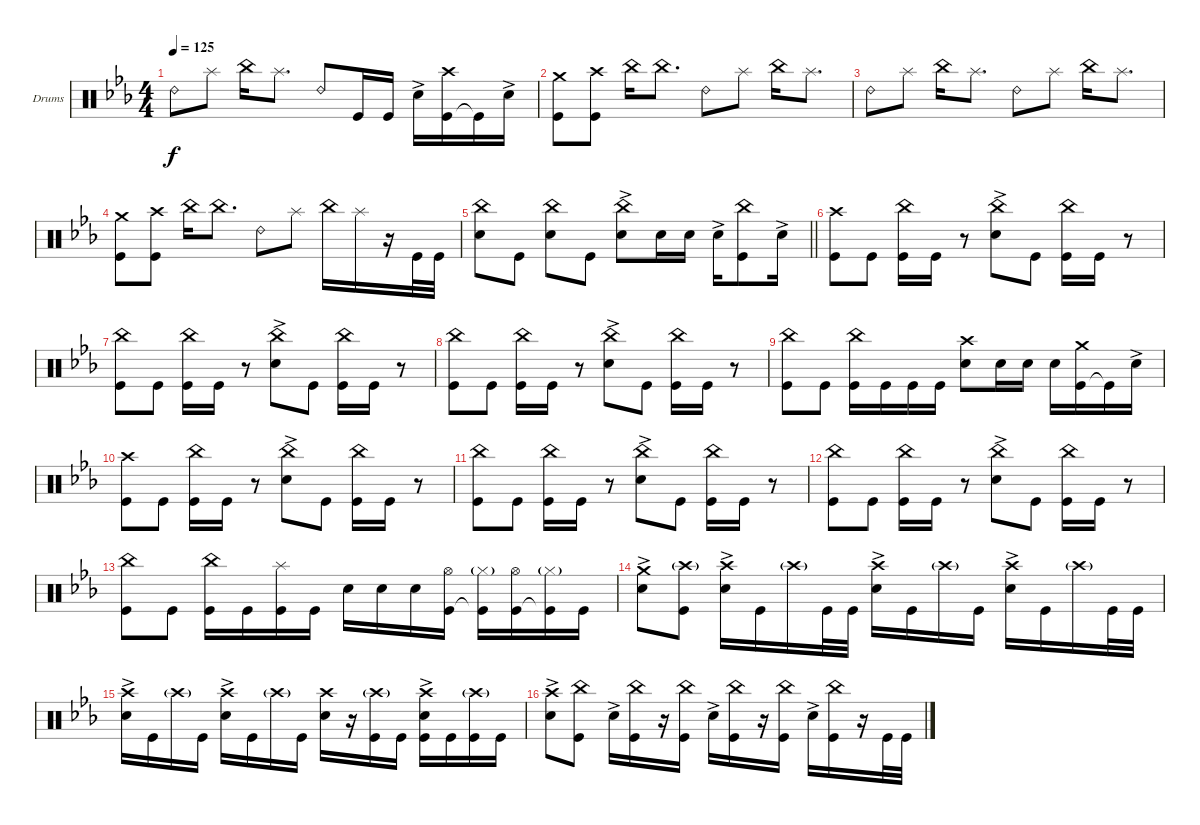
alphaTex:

\bracketExtendMode groupsimilarinstruments
\firstSystemTrackNameOrientation horizontal
\otherSystemsTrackNameOrientation horizontal
\track ("Drumkit" "Drums") {instrument percussion}
\staff {score}
\articulation defaults
\ts (4 4)
\tempo 125
\clef neutral
\ks cminor "Ride (bell) 2".8{dy f} "Splash (hit)".8 "China (hit)".16 "Splash (hit)".8{d} "Ride (bell) 2".8 "Kick (hit)".16 "Kick (hit)".16 "Snare (hit) 2"{ac}.16
("Kick (hit)" "Crash high (hit)").16 "Kick (hit)"{t}.16 "Snare (hit) 2"{ac}.16 |
("Crash medium (hit)" "Kick (hit)").8 ("Crash high (hit)" "Kick (hit)").8 "China (hit)".16 "China (hit)".8{d} "Ride (bell) 2".8 "Splash (hit)".8 "China (hit)".16 "Splash (hit)".8{d} |
"Ride (bell) 2".8 "Splash (hit)".8 "China (hit)".16 "Splash (hit)".8{d} "Ride (bell) 2".8 "Splash (hit)".8 "China (hit)".16 "Splash (hit)".8{d} |
("Crash medium (hit)" "Kick (hit)").8 ("Crash high (hit)" "Kick (hit)").8 "China (hit)".16 "China (hit)".8{d} "Ride (bell) 2".8 "Splash (hit)".8 "China (hit)".16 "Splash (hit)".16 r.16 "Kick (hit)".32 "Kick (hit)".32 |
\barLineRight lightlight
("Snare (hit) 2" "China (hit)").8 "Kick (hit)".8 ("Snare (hit) 2" "China (hit)").8 "Kick (hit)".8 ("Snare (hit) 2"{ac} "China (hit)").8 "Snare (hit) 2".16 "Snare (hit) 2".16 "Snare (hit) 2"{ac}.16 ("Kick (hit)" "China (hit)").8 "Snare (hit) 2"{ac}.16 |
("Kick (hit)" "Crash high (hit)").8 "Kick (hit)".8 ("Kick (hit)" "China (hit)").16 "Kick (hit)".16 r.8 ("Snare (hit) 2"{ac} "China (hit)").8 "Kick (hit)".8 ("Kick (hit)" "China (hit)").16 "Kick (hit)".16 r.8 |
("Kick (hit)" "China (hit)").8 "Kick (hit)".8 ("Kick (hit)" "China (hit)").16 "Kick (hit)".16 r.8 ("Snare (hit) 2"{ac} "China (hit)").8 "Kick (hit)".8 ("Kick (hit)" "China (hit)").16 "Kick (hit)".16 r.8 |
("Kick (hit)" "China (hit)").8 "Kick (hit)".8 ("Kick (hit)" "China (hit)").16 "Kick (hit)".16 r.8 ("Snare (hit) 2"{ac} "China (hit)").8 "Kick (hit)".8 ("Kick (hit)" "China (hit)").16 "Kick (hit)".16 r.8 |
("Kick (hit)" "China (hit)").8 "Kick (hit)".8 ("Kick (hit)" "China (hit)").16 "Kick (hit)".16 "Kick (hit)".16 "Kick (hit)".16 ("Snare (hit) 2" "Crash high (hit)").8 "Snare (hit) 2".16 "Snare (hit) 2".16 "Snare (hit) 2".16 ("Kick (hit)" "Crash medium (hit)").16 "Kick (hit)"{t}.16 "Snare (hit) 2"{ac}.16 |
("Kick (hit)" "Crash high (hit)").8 "Kick (hit)".8 ("Kick (hit)" "China (hit)").16 "Kick (hit)".16 r.8 ("Snare (hit) 2"{ac} "China (hit)").8 "Kick (hit)".8 ("Kick (hit)" "China (hit)").16 "Kick (hit)".16 r.8 |
("Kick (hit)" "China (hit)").8 "Kick (hit)".8 ("Kick (hit)" "China (hit)").16 "Kick (hit)".16 r.8 ("Snare (hit) 2"{ac} "China (hit)").8 "Kick (hit)".8 ("Kick (hit)" "China (hit)").16 "Kick (hit)".16 r.8 |
("Kick (hit)" "China (hit)").8 "Kick (hit)".8 ("Kick (hit)" "China (hit)").16 "Kick (hit)".16 r.8 ("Snare (hit) 2"{ac} "China (hit)").8 "Kick (hit)".8 ("Kick (hit)" "China (hit)").16 "Kick (hit)".16 r.8 |
("Kick (hit)" "China (hit)").8 "Kick (hit)".8 ("Kick (hit)" "China (hit)").16 "Kick (hit)".16 ("Kick (hit)" "Splash (hit)").16 "Kick (hit)".16 "Snare (hit) 2".16 "Snare (hit) 2".16 "Snare (hit) 2".16 ("Kick (hit)" "Hi-Hat (open)").16 ("Kick (hit)"{t} "Hi-Hat (closed)"{g}).16 ("Kick (hit)" "Hi-Hat (open)").16 ("Kick (hit)"{t} "Hi-Hat (closed)"{g}).16 "Kick (hit)".16 |
("Snare (hit) 2"{ac} "Crash medium (hit)").8 ("Kick (hit)" "Crash high (hit)"{g}).8 ("Snare (hit) 2"{ac} "Crash high (hit)").16 "Kick (hit)".16 "Crash high (hit)"{g}.16 "Kick (hit)".32 "Kick (hit)".32 ("Snare (hit) 2"{ac} "Crash high (hit)").16 "Kick (hit)".16 "Crash high (hit)"{g}.16 "Kick (hit)".16 ("Snare (hit) 2"{ac} "Crash high (hit)").16 "Kick (hit)".16 "Crash high (hit)"{g}.16 "Kick (hit)".32 "Kick (hit)".32 |
("Snare (hit) 2"{ac} "Crash high (hit)").16 "Kick (hit)".16 "Crash high (hit)"{g}.16 "Kick (hit)".16 ("Snare (hit) 2"{ac} "Crash high (hit)").16 "Kick (hit)".16 "Crash high (hit)"{g}.16 "Kick (hit)".16 ("Snare (hit) 2" "Crash high (hit)").16 r.16 ("Kick (hit)" "Crash high (hit)"{g}).16 "Kick (hit)".16 ("Kick (hit)" "Snare (hit) 2"{ac} "Crash high (hit)").16 "Kick (hit)".16 ("Kick (hit)" "Crash high (hit)"{g}).16 "Kick (hit)".16 |
("Snare (hit) 2"{ac} "Crash high (hit)").8 ("Kick (hit)" "China (hit)").8 "Snare (hit) 2"{ac}.16 ("Kick (hit)" "China (hit)").16 r.16 ("Kick (hit)" "China (hit)").16 "Snare (hit) 2"{ac}.16 ("Kick (hit)" "China (hit)").16 r.16 ("Kick (hit)" "China (hit)").16 "Snare (hit) 2"{ac}.16 ("Kick (hit)" "China (hit)").16 r.16 "Kick (hit)".32 "Kick (hit)".32
